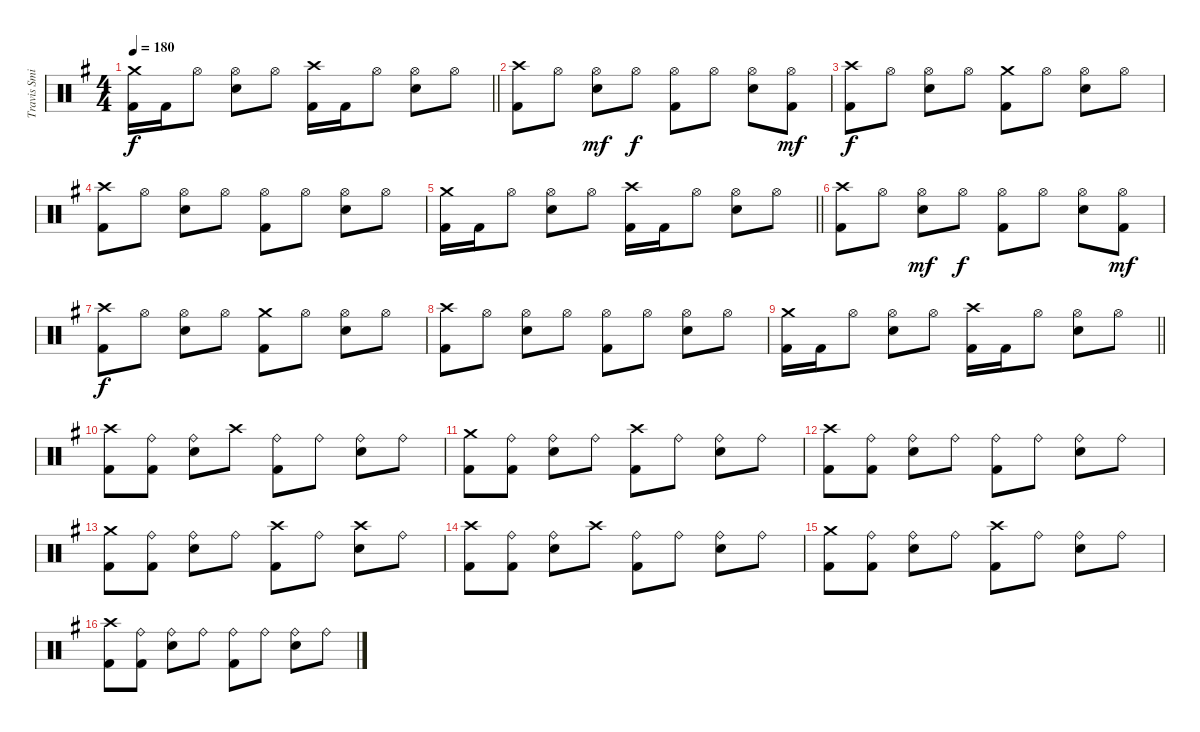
\track ("Travis Smith" "Travis Smi") {instrument percussion}
\staff {score}
\articulation defaults
\ts (4 4)
\tempo 180
\clef neutral
\barLineRight lightlight
\ks eminor
("Crash medium (hit)" "Kick (hit) 2").16{dy f} "Kick (hit) 2".16 "Hi-Hat (open)".8 ("Hi-Hat (open)" "Snare (hit) 2").8 "Hi-Hat (open)".8 ("Crash high (hit)" "Kick (hit) 2").16 "Kick (hit) 2".16 "Hi-Hat (open)".8 ("Hi-Hat (open)" "Snare (hit) 2").8 "Hi-Hat (open)".8 |
("Crash high (hit)" "Kick (hit) 2").8 "Hi-Hat (open)".8 ("Hi-Hat (open)" "Snare (hit) 2").8{dy mf} "Hi-Hat (open)".8{dy f} ("Hi-Hat (open)" "Kick (hit) 2").8 "Hi-Hat (open)".8 ("Hi-Hat (open)" "Snare (hit) 2").8 ("Hi-Hat (open)" "Kick (hit) 2").8{dy mf} |
("Crash high (hit)" "Kick (hit) 2").8{dy f} "Hi-Hat (open)".8 ("Hi-Hat (open)" "Snare (hit) 2").8 "Hi-Hat (open)".8 ("Crash medium (hit)" "Kick (hit) 2").8 "Hi-Hat (open)".8 ("Hi-Hat (open)" "Snare (hit) 2").8 "Hi-Hat (open)".8 |
("Crash high (hit)" "Kick (hit) 2").8 "Hi-Hat (open)".8 ("Hi-Hat (open)" "Snare (hit) 2").8 "Hi-Hat (open)".8 ("Hi-Hat (open)" "Kick (hit) 2").8 "Hi-Hat (open)".8 ("Hi-Hat (open)" "Snare (hit) 2").8 "Hi-Hat (open)".8 |
\barLineRight lightlight
("Crash medium (hit)" "Kick (hit) 2").16 "Kick (hit) 2".16 "Hi-Hat (open)".8 ("Hi-Hat (open)" "Snare (hit) 2").8 "Hi-Hat (open)".8 ("Crash high (hit)" "Kick (hit) 2").16 "Kick (hit) 2".16 "Hi-Hat (open)".8 ("Hi-Hat (open)" "Snare (hit) 2").8 "Hi-Hat (open)".8 |
("Crash high (hit)" "Kick (hit) 2").8 "Hi-Hat (open)".8 ("Hi-Hat (open)" "Snare (hit) 2").8{dy mf} "Hi-Hat (open)".8{dy f} ("Hi-Hat (open)" "Kick (hit) 2").8 "Hi-Hat (open)".8 ("Hi-Hat (open)" "Snare (hit) 2").8 ("Hi-Hat (open)" "Kick (hit) 2").8{dy mf} |
("Crash high (hit)" "Kick (hit) 2").8{dy f} "Hi-Hat (open)".8 ("Hi-Hat (open)" "Snare (hit) 2").8 "Hi-Hat (open)".8 ("Crash medium (hit)" "Kick (hit) 2").8 "Hi-Hat (open)".8 ("Hi-Hat (open)" "Snare (hit) 2").8 "Hi-Hat (open)".8 |
("Crash high (hit)" "Kick (hit) 2").8 "Hi-Hat (open)".8 ("Hi-Hat (open)" "Snare (hit) 2").8 "Hi-Hat (open)".8 ("Hi-Hat (open)" "Kick (hit) 2").8 "Hi-Hat (open)".8 ("Hi-Hat (open)" "Snare (hit) 2").8 "Hi-Hat (open)".8 |
\barLineRight lightlight
("Crash medium (hit)" "Kick (hit) 2").16 "Kick (hit) 2".16 "Hi-Hat (open)".8 ("Hi-Hat (open)" "Snare (hit) 2").8 "Hi-Hat (open)".8 ("Crash high (hit)" "Kick (hit) 2").16 "Kick (hit) 2".16 "Hi-Hat (open)".8 ("Hi-Hat (open)" "Snare (hit) 2").8 "Hi-Hat (open)".8 |
("Crash high (hit)" "Kick (hit) 2").8 ("Ride (bell)" "Kick (hit) 2").8 ("Ride (bell)" "Snare (hit) 2").8 "Crash high (hit)".8 ("Ride (bell)" "Kick (hit) 2").8 "Ride (bell)".8 ("Ride (bell)" "Snare (hit) 2").8 "Ride (bell)".8 |
("Crash medium (hit)" "Kick (hit) 2").8 ("Ride (bell)" "Kick (hit) 2").8 ("Ride (bell)" "Snare (hit) 2").8 "Ride (bell)".8 ("Crash high (hit)" "Kick (hit) 2").8 "Ride (bell)".8 ("Ride (bell)" "Snare (hit) 2").8 "Ride (bell)".8 |
("Crash high (hit)" "Kick (hit) 2").8 ("Ride (bell)" "Kick (hit) 2").8 ("Ride (bell)" "Snare (hit) 2").8 "Ride (bell)".8 ("Ride (bell)" "Kick (hit) 2").8 "Ride (bell)".8 ("Ride (bell)" "Snare (hit) 2").8 "Ride (bell)".8 |
("Crash medium (hit)" "Kick (hit) 2").8 ("Ride (bell)" "Kick (hit) 2").8 ("Ride (bell)" "Snare (hit) 2").8 "Ride (bell)".8 ("Crash high (hit)" "Kick (hit) 2").8 "Ride (bell)".8 ("Crash high (hit)" "Snare (hit) 2").8 "Ride (bell)".8 |
("Crash high (hit)" "Kick (hit) 2").8 ("Ride (bell)" "Kick (hit) 2").8 ("Ride (bell)" "Snare (hit) 2").8 "Crash high (hit)".8 ("Ride (bell)" "Kick (hit) 2").8 "Ride (bell)".8 ("Ride (bell)" "Snare (hit) 2").8 "Ride (bell)".8 |
("Crash medium (hit)" "Kick (hit) 2").8 ("Ride (bell)" "Kick (hit) 2").8 ("Ride (bell)" "Snare (hit) 2").8 "Ride (bell)".8 ("Crash high (hit)" "Kick (hit) 2").8 "Ride (bell)".8 ("Ride (bell)" "Snare (hit) 2").8 "Ride (bell)".8 |
("Crash high (hit)" "Kick (hit) 2").8 ("Ride (bell)" "Kick (hit) 2").8 ("Ride (bell)" "Snare (hit) 2").8 "Ride (bell)".8 ("Ride (bell)" "Kick (hit) 2").8 "Ride (bell)".8 ("Ride (bell)" "Snare (hit) 2").8 "Ride (bell)".8
